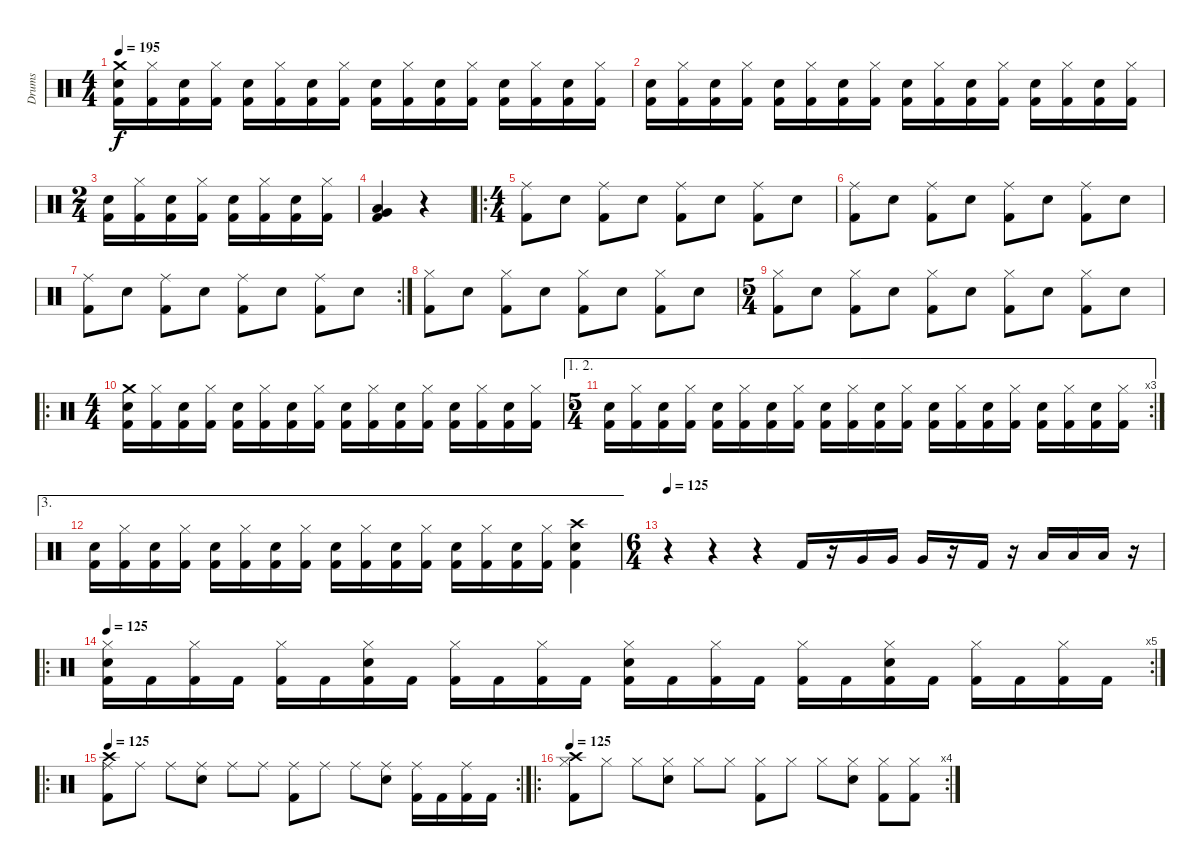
\track ("Drums" "Drums") {instrument percussion}
\staff {score}
\articulation defaults
\ts (4 4)
\tempo 195
\clef neutral
\ks c
("Crash medium (hit)" "Kick (hit) 2" "Snare (hit) 2").16{dy f} ("Hi-Hat (closed)" "Kick (hit) 2").16 ("Kick (hit) 2" "Snare (hit) 2").16 ("Hi-Hat (closed)" "Kick (hit) 2").16 ("Kick (hit) 2" "Snare (hit) 2").16 ("Hi-Hat (closed)" "Kick (hit) 2").16 ("Kick (hit) 2" "Snare (hit) 2").16 ("Hi-Hat (closed)" "Kick (hit) 2").16 ("Kick (hit) 2" "Snare (hit) 2").16 ("Hi-Hat (closed)" "Kick (hit) 2").16 ("Kick (hit) 2" "Snare (hit) 2").16 ("Hi-Hat (closed)" "Kick (hit) 2").16 ("Kick (hit) 2" "Snare (hit) 2").16 ("Hi-Hat (closed)" "Kick (hit) 2").16 ("Kick (hit) 2" "Snare (hit) 2").16 ("Hi-Hat (closed)" "Kick (hit) 2").16 |
("Kick (hit) 2" "Snare (hit) 2").16 ("Hi-Hat (closed)" "Kick (hit) 2").16 ("Kick (hit) 2" "Snare (hit) 2").16 ("Hi-Hat (closed)" "Kick (hit) 2").16 ("Kick (hit) 2" "Snare (hit) 2").16 ("Hi-Hat (closed)" "Kick (hit) 2").16 ("Kick (hit) 2" "Snare (hit) 2").16 ("Hi-Hat (closed)" "Kick (hit) 2").16 ("Kick (hit) 2" "Snare (hit) 2").16 ("Hi-Hat (closed)" "Kick (hit) 2").16 ("Kick (hit) 2" "Snare (hit) 2").16 ("Hi-Hat (closed)" "Kick (hit) 2").16 ("Kick (hit) 2" "Snare (hit) 2").16 ("Hi-Hat (closed)" "Kick (hit) 2").16 ("Kick (hit) 2" "Snare (hit) 2").16 ("Hi-Hat (closed)" "Kick (hit) 2").16 |
\ts (2 4)
("Kick (hit) 2" "Snare (hit) 2").16 ("Hi-Hat (closed)" "Kick (hit) 2").16 ("Kick (hit) 2" "Snare (hit) 2").16 ("Hi-Hat (closed)" "Kick (hit) 2").16 ("Kick (hit) 2" "Snare (hit) 2").16 ("Hi-Hat (closed)" "Kick (hit) 2").16 ("Kick (hit) 2" "Snare (hit) 2").16 ("Hi-Hat (closed)" "Kick (hit) 2").16 |
("Kick (hit) 2" "Very Low Tom (hit)" "Low Tom (hit)").4 r.4 |
\ro
\ts (4 4)
("Ride (middle)" "Kick (hit) 2").8 "Snare (hit) 2".8 ("Ride (middle)" "Kick (hit) 2").8 "Snare (hit) 2".8 ("Ride (middle)" "Kick (hit) 2").8 "Snare (hit) 2".8 ("Ride (middle)" "Kick (hit) 2").8 "Snare (hit) 2".8 |
("Ride (middle)" "Kick (hit) 2").8 "Snare (hit) 2".8 ("Ride (middle)" "Kick (hit) 2").8 "Snare (hit) 2".8 ("Ride (middle)" "Kick (hit) 2").8 "Snare (hit) 2".8 ("Ride (middle)" "Kick (hit) 2").8 "Snare (hit) 2".8 |
\rc 2
("Ride (middle)" "Kick (hit) 2").8 "Snare (hit) 2".8 ("Ride (middle)" "Kick (hit) 2").8 "Snare (hit) 2".8 ("Ride (middle)" "Kick (hit) 2").8 "Snare (hit) 2".8 ("Ride (middle)" "Kick (hit) 2").8 "Snare (hit) 2".8 |
("Hi-Hat (closed)" "Kick (hit) 2").8 "Snare (hit) 2".8 ("Hi-Hat (closed)" "Kick (hit) 2").8 "Snare (hit) 2".8 ("Hi-Hat (closed)" "Kick (hit) 2").8 "Snare (hit) 2".8 ("Hi-Hat (closed)" "Kick (hit) 2").8 "Snare (hit) 2".8 |
\ts (5 4)
("Hi-Hat (closed)" "Kick (hit) 2").8 "Snare (hit) 2".8 ("Hi-Hat (closed)" "Kick (hit) 2").8 "Snare (hit) 2".8 ("Hi-Hat (closed)" "Kick (hit) 2").8 "Snare (hit) 2".8 ("Hi-Hat (closed)" "Kick (hit) 2").8 "Snare (hit) 2".8 ("Hi-Hat (closed)" "Kick (hit) 2").8 "Snare (hit) 2".8 |
\ro
\ts (4 4)
("Crash medium (hit)" "Kick (hit) 2" "Snare (hit) 2").16 ("Hi-Hat (closed)" "Kick (hit) 2").16 ("Kick (hit) 2" "Snare (hit) 2").16 ("Hi-Hat (closed)" "Kick (hit) 2").16 ("Kick (hit) 2" "Snare (hit) 2").16 ("Hi-Hat (closed)" "Kick (hit) 2").16 ("Kick (hit) 2" "Snare (hit) 2").16 ("Hi-Hat (closed)" "Kick (hit) 2").16 ("Kick (hit) 2" "Snare (hit) 2").16 ("Hi-Hat (closed)" "Kick (hit) 2").16 ("Kick (hit) 2" "Snare (hit) 2").16 ("Hi-Hat (closed)" "Kick (hit) 2").16 ("Kick (hit) 2" "Snare (hit) 2").16 ("Hi-Hat (closed)" "Kick (hit) 2").16 ("Kick (hit) 2" "Snare (hit) 2").16 ("Hi-Hat (closed)" "Kick (hit) 2").16 |
\ae (1 2)
\rc 3
\ts (5 4)
("Kick (hit) 2" "Snare (hit) 2").16 ("Hi-Hat (closed)" "Kick (hit) 2").16 ("Kick (hit) 2" "Snare (hit) 2").16 ("Hi-Hat (closed)" "Kick (hit) 2").16 ("Kick (hit) 2" "Snare (hit) 2").16 ("Hi-Hat (closed)" "Kick (hit) 2").16 ("Kick (hit) 2" "Snare (hit) 2").16 ("Hi-Hat (closed)" "Kick (hit) 2").16 ("Kick (hit) 2" "Snare (hit) 2").16 ("Hi-Hat (closed)" "Kick (hit) 2").16 ("Kick (hit) 2" "Snare (hit) 2").16 ("Hi-Hat (closed)" "Kick (hit) 2").16 ("Kick (hit) 2" "Snare (hit) 2").16 ("Hi-Hat (closed)" "Kick (hit) 2").16 ("Kick (hit) 2" "Snare (hit) 2").16 ("Hi-Hat (closed)" "Kick (hit) 2").16 ("Kick (hit) 2" "Snare (hit) 2").16 ("Hi-Hat (closed)" "Kick (hit) 2").16 ("Kick (hit) 2" "Snare (hit) 2").16 ("Hi-Hat (closed)" "Kick (hit) 2").16 |
\ae 3
("Kick (hit) 2" "Snare (hit) 2").16 ("Hi-Hat (closed)" "Kick (hit) 2").16 ("Kick (hit) 2" "Snare (hit) 2").16 ("Hi-Hat (closed)" "Kick (hit) 2").16 ("Kick (hit) 2" "Snare (hit) 2").16 ("Hi-Hat (closed)" "Kick (hit) 2").16 ("Kick (hit) 2" "Snare (hit) 2").16 ("Hi-Hat (closed)" "Kick (hit) 2").16 ("Kick (hit) 2" "Snare (hit) 2").16 ("Hi-Hat (closed)" "Kick (hit) 2").16 ("Kick (hit) 2" "Snare (hit) 2").16 ("Hi-Hat (closed)" "Kick (hit) 2").16 ("Kick (hit) 2" "Snare (hit) 2").16 ("Hi-Hat (closed)" "Kick (hit) 2").16 ("Kick (hit) 2" "Snare (hit) 2").16 ("Hi-Hat (closed)" "Kick (hit) 2").16 ("Crash high (hit)" "Kick (hit) 2" "Snare (hit) 2").4 |
\ts (6 4)
\tempo 125
r.4 r.4 r.4 "Kick (hit) 2".16 r.16 "Very Low Tom (hit)".16 "Very Low Tom (hit)".16 "Very Low Tom (hit)".16 r.16 "Kick (hit) 2".16 r.16 "Low Floor Tom (hit)".16 "Low Floor Tom (hit)".16 "Low Floor Tom (hit)".16 r.16 |
\ro
\rc 5
\tempo 125
("Hi-Hat (closed)" "Snare (hit) 2" "Kick (hit) 2").16 "Kick (hit) 2".16 ("Hi-Hat (closed)" "Kick (hit) 2").16 "Kick (hit) 2".16 ("Hi-Hat (closed)" "Kick (hit) 2").16 "Kick (hit) 2".16 ("Hi-Hat (closed)" "Snare (hit) 2" "Kick (hit) 2").16 "Kick (hit) 2".16 ("Hi-Hat (closed)" "Kick (hit) 2").16 "Kick (hit) 2".16 ("Hi-Hat (closed)" "Kick (hit) 2").16 "Kick (hit) 2".16 ("Hi-Hat (closed)" "Snare (hit) 2" "Kick (hit) 2").16 "Kick (hit) 2".16 ("Hi-Hat (closed)" "Kick (hit) 2").16 "Kick (hit) 2".16 ("Hi-Hat (closed)" "Kick (hit) 2").16 "Kick (hit) 2".16 ("Hi-Hat (closed)" "Snare (hit) 2" "Kick (hit) 2").16 "Kick (hit) 2".16 ("Hi-Hat (closed)" "Kick (hit) 2").16 "Kick (hit) 2".16 ("Hi-Hat (closed)" "Kick (hit) 2").16 "Kick (hit) 2".16 |
\ro
\rc 2
\tempo 125
("Crash high (hit)" "Ride (middle)" "Kick (hit) 2").8 "Ride (middle)".8 "Ride (middle)".8 ("Ride (middle)" "Snare (hit) 2").8 "Ride (middle)".8 "Ride (middle)".8 ("Ride (middle)" "Kick (hit) 2").8 "Ride (middle)".8 "Ride (middle)".8 ("Ride (middle)" "Snare (hit) 2").8 ("Ride (middle)" "Kick (hit) 2").16 "Kick (hit) 2".16 ("Ride (middle)" "Kick (hit) 2").16 "Kick (hit) 2".16 |
\ro
\rc 4
\tempo 125
("Crash high (hit)" "Hi-Hat (closed)" "Kick (hit) 2").8 "Hi-Hat (closed)".8 "Hi-Hat (closed)".8 ("Hi-Hat (closed)" "Snare (hit) 2").8 "Hi-Hat (closed)".8 "Hi-Hat (closed)".8 ("Hi-Hat (closed)" "Kick (hit) 2").8 "Hi-Hat (closed)".8 "Hi-Hat (closed)".8 ("Hi-Hat (closed)" "Snare (hit) 2").8 ("Hi-Hat (closed)" "Kick (hit) 2").8 ("Hi-Hat (closed)" "Kick (hit) 2").8
